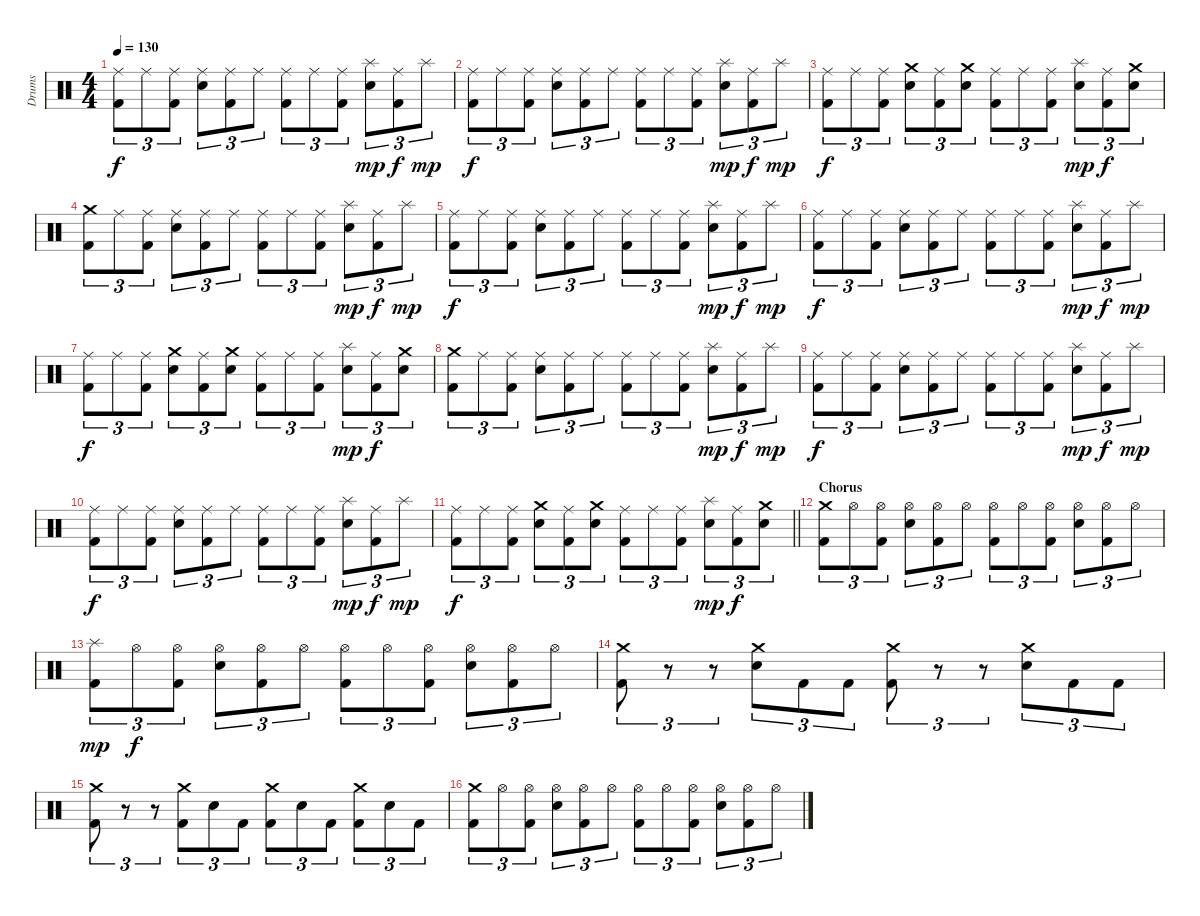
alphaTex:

\track ("Drums" "Drums") {instrument percussion}
\staff {score}
\articulation defaults
\ts (4 4)
\tempo 130
\clef neutral
\ks c
("Ride (middle)" "Kick (hit) 2").8{tu (3 2) dy f} "Ride (middle)".8{tu (3 2)} ("Ride (middle)" "Kick (hit) 2").8{tu (3 2)} ("Ride (middle)" "Electric Snare (hit)").8{tu (3 2)} ("Ride (middle)" "Kick (hit) 2").8{tu (3 2)} "Ride (middle)".8{tu (3 2)} ("Ride (middle)" "Kick (hit) 2").8{tu (3 2)} "Ride (middle)".8{tu (3 2)} ("Ride (middle)" "Kick (hit) 2").8{tu (3 2)} ("Splash (hit)" "Electric Snare (hit)").8{tu (3 2) dy mp} ("Ride (middle)" "Kick (hit) 2").8{tu (3 2) dy f} "Splash (hit)".8{tu (3 2) dy mp} |
("Ride (middle)" "Kick (hit) 2").8{tu (3 2) dy f} "Ride (middle)".8{tu (3 2)} ("Ride (middle)" "Kick (hit) 2").8{tu (3 2)} ("Ride (middle)" "Electric Snare (hit)").8{tu (3 2)} ("Ride (middle)" "Kick (hit) 2").8{tu (3 2)} "Ride (middle)".8{tu (3 2)} ("Ride (middle)" "Kick (hit) 2").8{tu (3 2)} "Ride (middle)".8{tu (3 2)} ("Ride (middle)" "Kick (hit) 2").8{tu (3 2)} ("Splash (hit)" "Electric Snare (hit)").8{tu (3 2) dy mp} ("Ride (middle)" "Kick (hit) 2").8{tu (3 2) dy f} "Splash (hit)".8{tu (3 2) dy mp} |
("Ride (middle)" "Kick (hit) 2").8{tu (3 2) dy f} "Ride (middle)".8{tu (3 2)} ("Ride (middle)" "Kick (hit) 2").8{tu (3 2)} ("Crash medium (hit)" "Electric Snare (hit)").8{tu (3 2)} ("Ride (middle)" "Kick (hit) 2").8{tu (3 2)} ("Crash medium (hit)" "Electric Snare (hit)").8{tu (3 2)} ("Ride (middle)" "Kick (hit) 2").8{tu (3 2)} "Ride (middle)".8{tu (3 2)} ("Ride (middle)" "Kick (hit) 2").8{tu (3 2)} ("Splash (hit)" "Electric Snare (hit)").8{tu (3 2) dy mp} ("Ride (middle)" "Kick (hit) 2").8{tu (3 2) dy f} ("Crash medium (hit)" "Electric Snare (hit)").8{tu (3 2)} |
("Crash medium (hit)" "Kick (hit) 2").8{tu (3 2)} "Ride (middle)".8{tu (3 2)} ("Ride (middle)" "Kick (hit) 2").8{tu (3 2)} ("Ride (middle)" "Electric Snare (hit)").8{tu (3 2)} ("Ride (middle)" "Kick (hit) 2").8{tu (3 2)} "Ride (middle)".8{tu (3 2)} ("Ride (middle)" "Kick (hit) 2").8{tu (3 2)} "Ride (middle)".8{tu (3 2)} ("Ride (middle)" "Kick (hit) 2").8{tu (3 2)} ("Splash (hit)" "Electric Snare (hit)").8{tu (3 2) dy mp} ("Ride (middle)" "Kick (hit) 2").8{tu (3 2) dy f} "Splash (hit)".8{tu (3 2) dy mp} |
("Ride (middle)" "Kick (hit) 2").8{tu (3 2) dy f} "Ride (middle)".8{tu (3 2)} ("Ride (middle)" "Kick (hit) 2").8{tu (3 2)} ("Ride (middle)" "Electric Snare (hit)").8{tu (3 2)} ("Ride (middle)" "Kick (hit) 2").8{tu (3 2)} "Ride (middle)".8{tu (3 2)} ("Ride (middle)" "Kick (hit) 2").8{tu (3 2)} "Ride (middle)".8{tu (3 2)} ("Ride (middle)" "Kick (hit) 2").8{tu (3 2)} ("Splash (hit)" "Electric Snare (hit)").8{tu (3 2) dy mp} ("Ride (middle)" "Kick (hit) 2").8{tu (3 2) dy f} "Splash (hit)".8{tu (3 2) dy mp} |
("Ride (middle)" "Kick (hit) 2").8{tu (3 2) dy f} "Ride (middle)".8{tu (3 2)} ("Ride (middle)" "Kick (hit) 2").8{tu (3 2)} ("Ride (middle)" "Electric Snare (hit)").8{tu (3 2)} ("Ride (middle)" "Kick (hit) 2").8{tu (3 2)} "Ride (middle)".8{tu (3 2)} ("Ride (middle)" "Kick (hit) 2").8{tu (3 2)} "Ride (middle)".8{tu (3 2)} ("Ride (middle)" "Kick (hit) 2").8{tu (3 2)} ("Splash (hit)" "Electric Snare (hit)").8{tu (3 2) dy mp} ("Ride (middle)" "Kick (hit) 2").8{tu (3 2) dy f} "Splash (hit)".8{tu (3 2) dy mp} |
("Ride (middle)" "Kick (hit) 2").8{tu (3 2) dy f} "Ride (middle)".8{tu (3 2)} ("Ride (middle)" "Kick (hit) 2").8{tu (3 2)} ("Crash medium (hit)" "Electric Snare (hit)").8{tu (3 2)} ("Ride (middle)" "Kick (hit) 2").8{tu (3 2)} ("Crash medium (hit)" "Electric Snare (hit)").8{tu (3 2)} ("Ride (middle)" "Kick (hit) 2").8{tu (3 2)} "Ride (middle)".8{tu (3 2)} ("Ride (middle)" "Kick (hit) 2").8{tu (3 2)} ("Splash (hit)" "Electric Snare (hit)").8{tu (3 2) dy mp} ("Ride (middle)" "Kick (hit) 2").8{tu (3 2) dy f} ("Crash medium (hit)" "Electric Snare (hit)").8{tu (3 2)} |
("Crash medium (hit)" "Kick (hit) 2").8{tu (3 2)} "Ride (middle)".8{tu (3 2)} ("Ride (middle)" "Kick (hit) 2").8{tu (3 2)} ("Ride (middle)" "Electric Snare (hit)").8{tu (3 2)} ("Ride (middle)" "Kick (hit) 2").8{tu (3 2)} "Ride (middle)".8{tu (3 2)} ("Ride (middle)" "Kick (hit) 2").8{tu (3 2)} "Ride (middle)".8{tu (3 2)} ("Ride (middle)" "Kick (hit) 2").8{tu (3 2)} ("Splash (hit)" "Electric Snare (hit)").8{tu (3 2) dy mp} ("Ride (middle)" "Kick (hit) 2").8{tu (3 2) dy f} "Splash (hit)".8{tu (3 2) dy mp} |
("Ride (middle)" "Kick (hit) 2").8{tu (3 2) dy f} "Ride (middle)".8{tu (3 2)} ("Ride (middle)" "Kick (hit) 2").8{tu (3 2)} ("Ride (middle)" "Electric Snare (hit)").8{tu (3 2)} ("Ride (middle)" "Kick (hit) 2").8{tu (3 2)} "Ride (middle)".8{tu (3 2)} ("Ride (middle)" "Kick (hit) 2").8{tu (3 2)} "Ride (middle)".8{tu (3 2)} ("Ride (middle)" "Kick (hit) 2").8{tu (3 2)} ("Splash (hit)" "Electric Snare (hit)").8{tu (3 2) dy mp} ("Ride (middle)" "Kick (hit) 2").8{tu (3 2) dy f} "Splash (hit)".8{tu (3 2) dy mp} |
("Ride (middle)" "Kick (hit) 2").8{tu (3 2) dy f} "Ride (middle)".8{tu (3 2)} ("Ride (middle)" "Kick (hit) 2").8{tu (3 2)} ("Ride (middle)" "Electric Snare (hit)").8{tu (3 2)} ("Ride (middle)" "Kick (hit) 2").8{tu (3 2)} "Ride (middle)".8{tu (3 2)} ("Ride (middle)" "Kick (hit) 2").8{tu (3 2)} "Ride (middle)".8{tu (3 2)} ("Ride (middle)" "Kick (hit) 2").8{tu (3 2)} ("Splash (hit)" "Electric Snare (hit)").8{tu (3 2) dy mp} ("Ride (middle)" "Kick (hit) 2").8{tu (3 2) dy f} "Splash (hit)".8{tu (3 2) dy mp} |
\barLineRight lightlight
("Ride (middle)" "Kick (hit) 2").8{tu (3 2) dy f} "Ride (middle)".8{tu (3 2)} ("Ride (middle)" "Kick (hit) 2").8{tu (3 2)} ("Crash medium (hit)" "Electric Snare (hit)").8{tu (3 2)} ("Ride (middle)" "Kick (hit) 2").8{tu (3 2)} ("Crash medium (hit)" "Electric Snare (hit)").8{tu (3 2)} ("Ride (middle)" "Kick (hit) 2").8{tu (3 2)} "Ride (middle)".8{tu (3 2)} ("Ride (middle)" "Kick (hit) 2").8{tu (3 2)} ("Splash (hit)" "Electric Snare (hit)").8{tu (3 2) dy mp} ("Ride (middle)" "Kick (hit) 2").8{tu (3 2) dy f} ("Crash medium (hit)" "Electric Snare (hit)").8{tu (3 2)} |
\section ("" "Chorus")
("Kick (hit) 2" "Crash medium (hit)").8{tu (3 2)} "Hi-Hat (open)".8{tu (3 2)} ("Kick (hit) 2" "Hi-Hat (open)").8{tu (3 2)} ("Electric Snare (hit)" "Hi-Hat (open)").8{tu (3 2)} ("Kick (hit) 2" "Hi-Hat (open)").8{tu (3 2)} "Hi-Hat (open)".8{tu (3 2)} ("Kick (hit) 2" "Hi-Hat (open)").8{tu (3 2)} "Hi-Hat (open)".8{tu (3 2)} ("Kick (hit) 2" "Hi-Hat (open)").8{tu (3 2)} ("Electric Snare (hit)" "Hi-Hat (open)").8{tu (3 2)} ("Kick (hit) 2" "Hi-Hat (open)").8{tu (3 2)} "Hi-Hat (open)".8{tu (3 2)} |
("Kick (hit) 2" "Splash (hit)").8{tu (3 2) dy mp} "Hi-Hat (open)".8{tu (3 2) dy f} ("Kick (hit) 2" "Hi-Hat (open)").8{tu (3 2)} ("Electric Snare (hit)" "Hi-Hat (open)").8{tu (3 2)} ("Kick (hit) 2" "Hi-Hat (open)").8{tu (3 2)} "Hi-Hat (open)".8{tu (3 2)} ("Kick (hit) 2" "Hi-Hat (open)").8{tu (3 2)} "Hi-Hat (open)".8{tu (3 2)} ("Kick (hit) 2" "Hi-Hat (open)").8{tu (3 2)} ("Electric Snare (hit)" "Hi-Hat (open)").8{tu (3 2)} ("Kick (hit) 2" "Hi-Hat (open)").8{tu (3 2)} "Hi-Hat (open)".8{tu (3 2)} |
("Kick (hit) 2" "Crash medium (hit)").8{tu (3 2)} r.8{tu (3 2)} r.8{tu (3 2)} ("Electric Snare (hit)" "Crash medium (hit)").8{tu (3 2)} "Kick (hit) 2".8{tu (3 2)} "Kick (hit) 2".8{tu (3 2)} ("Kick (hit) 2" "Crash medium (hit)").8{tu (3 2)} r.8{tu (3 2)} r.8{tu (3 2)} ("Electric Snare (hit)" "Crash medium (hit)").8{tu (3 2)} "Kick (hit) 2".8{tu (3 2)} "Kick (hit) 2".8{tu (3 2)} |
("Kick (hit) 2" "Crash medium (hit)").8{tu (3 2)} r.8{tu (3 2)} r.8{tu (3 2)} ("Kick (hit) 2" "Crash medium (hit)").8{tu (3 2)} "Electric Snare (hit)".8{tu (3 2)} "Kick (hit) 2".8{tu (3 2)} ("Kick (hit) 2" "Crash medium (hit)").8{tu (3 2)} "Electric Snare (hit)".8{tu (3 2)} "Kick (hit) 2".8{tu (3 2)} ("Kick (hit) 2" "Crash medium (hit)").8{tu (3 2)} "Electric Snare (hit)".8{tu (3 2)} "Kick (hit) 2".8{tu (3 2)} |
("Kick (hit) 2" "Crash medium (hit)").8{tu (3 2)} "Hi-Hat (open)".8{tu (3 2)} ("Kick (hit) 2" "Hi-Hat (open)").8{tu (3 2)} ("Electric Snare (hit)" "Hi-Hat (open)").8{tu (3 2)} ("Kick (hit) 2" "Hi-Hat (open)").8{tu (3 2)} "Hi-Hat (open)".8{tu (3 2)} ("Kick (hit) 2" "Hi-Hat (open)").8{tu (3 2)} "Hi-Hat (open)".8{tu (3 2)} ("Kick (hit) 2" "Hi-Hat (open)").8{tu (3 2)} ("Electric Snare (hit)" "Hi-Hat (open)").8{tu (3 2)} ("Kick (hit) 2" "Hi-Hat (open)").8{tu (3 2)} "Hi-Hat (open)".8{tu (3 2)}
